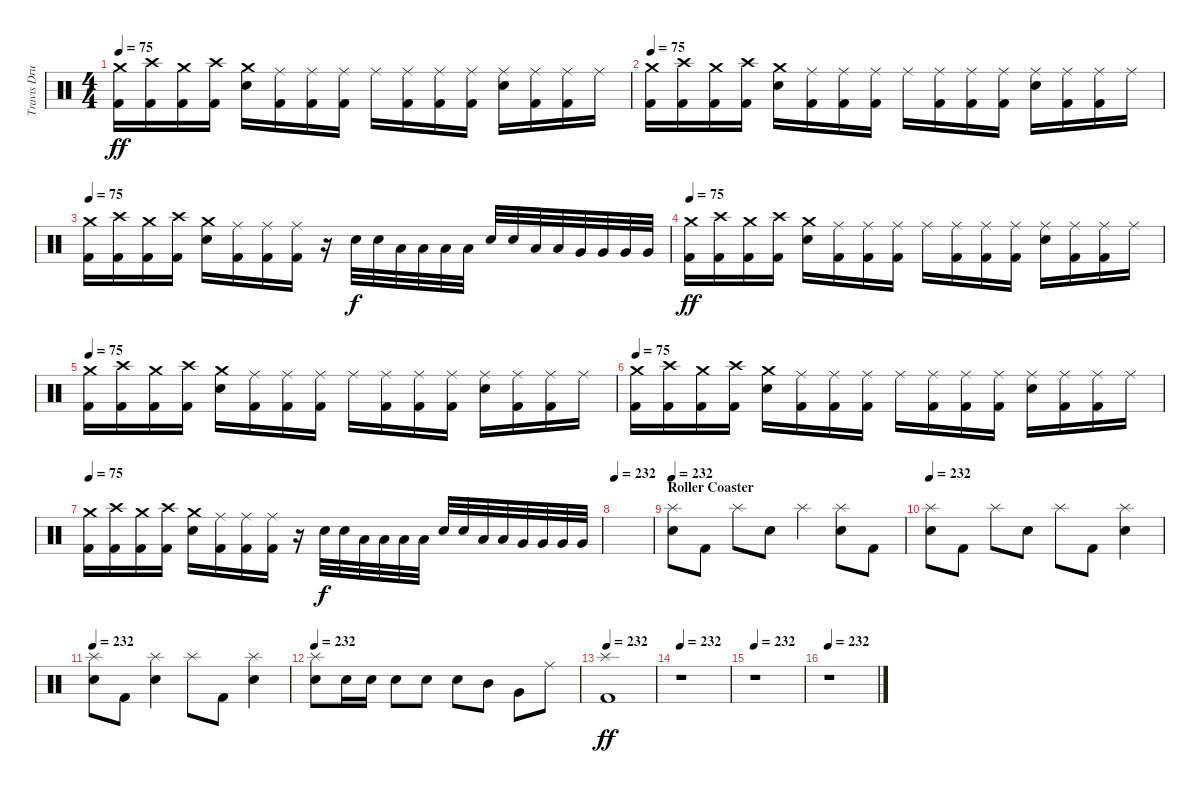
\track ("Travis Drums" "Travis Dru") {instrument percussion}
\staff {score}
\articulation defaults
\ts (4 4)
\tempo 75
\clef neutral
\ks c
("Crash medium (hit)" "Kick (hit) 2").16{dy ff} ("Crash high (hit)" "Kick (hit) 2").16 ("Crash medium (hit)" "Kick (hit) 2").16 ("Crash high (hit)" "Kick (hit) 2").16 ("Crash medium (hit)" "Electric Snare (hit)").16 ("Ride (middle)" "Kick (hit) 2").16 ("Ride (middle)" "Kick (hit) 2").16 ("Ride (middle)" "Kick (hit) 2").16 "Ride (middle)".16 ("Ride (middle)" "Kick (hit) 2").16 ("Ride (middle)" "Kick (hit) 2").16 ("Ride (middle)" "Kick (hit) 2").16 ("Ride (middle)" "Electric Snare (hit)").16 ("Ride (middle)" "Kick (hit) 2").16 ("Ride (middle)" "Kick (hit) 2").16 "Ride (middle)".16 |
\tempo 75
("Crash medium (hit)" "Kick (hit) 2").16 ("Crash high (hit)" "Kick (hit) 2").16 ("Crash medium (hit)" "Kick (hit) 2").16 ("Crash high (hit)" "Kick (hit) 2").16 ("Crash medium (hit)" "Electric Snare (hit)").16 ("Ride (middle)" "Kick (hit) 2").16 ("Ride (middle)" "Kick (hit) 2").16 ("Ride (middle)" "Kick (hit) 2").16 "Ride (middle)".16 ("Ride (middle)" "Kick (hit) 2").16 ("Ride (middle)" "Kick (hit) 2").16 ("Ride (middle)" "Kick (hit) 2").16 ("Ride (middle)" "Electric Snare (hit)").16 ("Ride (middle)" "Kick (hit) 2").16 ("Ride (middle)" "Kick (hit) 2").16 "Ride (middle)".16 |
\tempo 75
("Crash medium (hit)" "Kick (hit) 2").16 ("Crash high (hit)" "Kick (hit) 2").16 ("Crash medium (hit)" "Kick (hit) 2").16 ("Crash high (hit)" "Kick (hit) 2").16 ("Crash medium (hit)" "Electric Snare (hit)").16 ("Ride (middle)" "Kick (hit) 2").16 ("Ride (middle)" "Kick (hit) 2").16 ("Ride (middle)" "Kick (hit) 2").16 r.16 "Electric Snare (hit)".32{dy f} "Electric Snare (hit)".32 "Low Tom (hit)".32 "Low Tom (hit)".32 "Low Tom (hit)".32 "Low Tom (hit)".32 "Electric Snare (hit)".32 "Electric Snare (hit)".32 "Low Tom (hit)".32 "Low Tom (hit)".32 "Very Low Tom (hit)".32 "Very Low Tom (hit)".32 "Very Low Tom (hit)".32 "Very Low Tom (hit)".32 |
\tempo 75
("Crash medium (hit)" "Kick (hit) 2").16{dy ff} ("Crash high (hit)" "Kick (hit) 2").16 ("Crash medium (hit)" "Kick (hit) 2").16 ("Crash high (hit)" "Kick (hit) 2").16 ("Crash medium (hit)" "Electric Snare (hit)").16 ("Ride (middle)" "Kick (hit) 2").16 ("Ride (middle)" "Kick (hit) 2").16 ("Ride (middle)" "Kick (hit) 2").16 "Ride (middle)".16 ("Ride (middle)" "Kick (hit) 2").16 ("Ride (middle)" "Kick (hit) 2").16 ("Ride (middle)" "Kick (hit) 2").16 ("Ride (middle)" "Electric Snare (hit)").16 ("Ride (middle)" "Kick (hit) 2").16 ("Ride (middle)" "Kick (hit) 2").16 "Ride (middle)".16 |
\tempo 75
("Crash medium (hit)" "Kick (hit) 2").16 ("Crash high (hit)" "Kick (hit) 2").16 ("Crash medium (hit)" "Kick (hit) 2").16 ("Crash high (hit)" "Kick (hit) 2").16 ("Crash medium (hit)" "Electric Snare (hit)").16 ("Ride (middle)" "Kick (hit) 2").16 ("Ride (middle)" "Kick (hit) 2").16 ("Ride (middle)" "Kick (hit) 2").16 "Ride (middle)".16 ("Ride (middle)" "Kick (hit) 2").16 ("Ride (middle)" "Kick (hit) 2").16 ("Ride (middle)" "Kick (hit) 2").16 ("Ride (middle)" "Electric Snare (hit)").16 ("Ride (middle)" "Kick (hit) 2").16 ("Ride (middle)" "Kick (hit) 2").16 "Ride (middle)".16 |
\tempo 75
("Crash medium (hit)" "Kick (hit) 2").16 ("Crash high (hit)" "Kick (hit) 2").16 ("Crash medium (hit)" "Kick (hit) 2").16 ("Crash high (hit)" "Kick (hit) 2").16 ("Crash medium (hit)" "Electric Snare (hit)").16 ("Ride (middle)" "Kick (hit) 2").16 ("Ride (middle)" "Kick (hit) 2").16 ("Ride (middle)" "Kick (hit) 2").16 "Ride (middle)".16 ("Ride (middle)" "Kick (hit) 2").16 ("Ride (middle)" "Kick (hit) 2").16 ("Ride (middle)" "Kick (hit) 2").16 ("Ride (middle)" "Electric Snare (hit)").16 ("Ride (middle)" "Kick (hit) 2").16 ("Ride (middle)" "Kick (hit) 2").16 "Ride (middle)".16 |
\tempo 75
("Crash medium (hit)" "Kick (hit) 2").16 ("Crash high (hit)" "Kick (hit) 2").16 ("Crash medium (hit)" "Kick (hit) 2").16 ("Crash high (hit)" "Kick (hit) 2").16 ("Crash medium (hit)" "Electric Snare (hit)").16 ("Ride (middle)" "Kick (hit) 2").16 ("Ride (middle)" "Kick (hit) 2").16 ("Ride (middle)" "Kick (hit) 2").16 r.16 "Electric Snare (hit)".32{dy f} "Electric Snare (hit)".32 "Low Tom (hit)".32 "Low Tom (hit)".32 "Low Tom (hit)".32 "Low Tom (hit)".32 "Electric Snare (hit)".32 "Electric Snare (hit)".32 "Low Tom (hit)".32 "Low Tom (hit)".32 "Very Low Tom (hit)".32 "Very Low Tom (hit)".32 "Very Low Tom (hit)".32 "Very Low Tom (hit)".32 |
\tempo 232
|
\section ("" "Roller Coaster")
\tempo 232
("Splash (hit)" "Electric Snare (hit)").8 "Kick (hit) 2".8 "Splash (hit)".8 "Electric Snare (hit)".8 "Splash (hit)".4 ("Splash (hit)" "Electric Snare (hit)").8 "Kick (hit) 2".8 |
\tempo 232
("Splash (hit)" "Electric Snare (hit)").8 "Kick (hit) 2".8 "Splash (hit)".8 "Electric Snare (hit)".8 "Splash (hit)".8 "Kick (hit) 2".8 ("Splash (hit)" "Electric Snare (hit)").4 |
\tempo 232
("Splash (hit)" "Electric Snare (hit)").8 "Kick (hit) 2".8 ("Splash (hit)" "Electric Snare (hit)").4 "Splash (hit)".8 "Kick (hit) 2".8 ("Splash (hit)" "Electric Snare (hit)").4 |
\tempo 232
("Splash (hit)" "Electric Snare (hit)").8 "Electric Snare (hit)".16 "Electric Snare (hit)".16 "Electric Snare (hit)".8 "Electric Snare (hit)".8 "Electric Snare (hit)".8 "Mid Tom (hit)".8 "Very Low Tom (hit)".8 "Ride (middle)".8 |
\tempo 232
("Splash (hit)" "Kick (hit) 2").1{dy ff} |
\tempo 232
r.1 |
\tempo 232
r.1 |
\tempo 232
r.1
